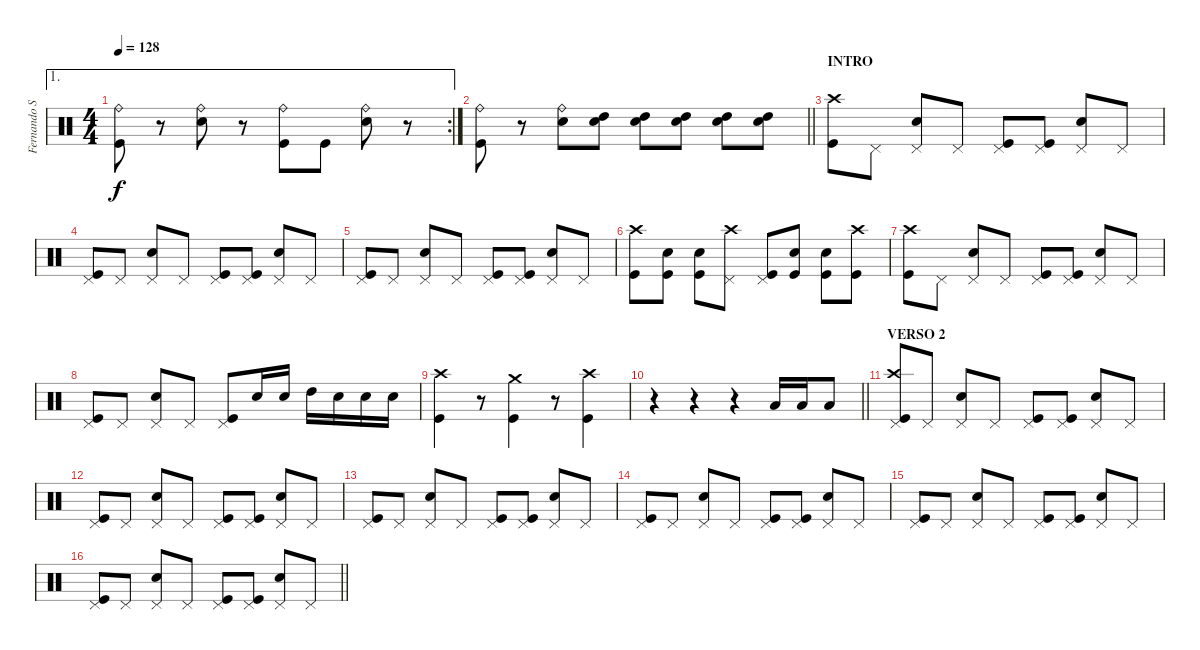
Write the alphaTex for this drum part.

\track ("Fernando Scarcella" "Fernando S") {instrument percussion}
\staff {score}
\articulation defaults
\ae 1
\rc 2
\ts (4 4)
\tempo 128
\clef neutral
\ks c
("Kick (hit)" "Ride (bell)").8{dy f} r.8 ("Snare (hit) 2" "Ride (bell)").8 r.8 ("Kick (hit)" "Ride (bell)").8 "Kick (hit)".8 ("Snare (hit) 2" "Ride (bell)").8 r.8 |
\barLineRight lightlight
("Kick (hit)" "Ride (bell)").8 r.8 ("Snare (hit) 2" "Ride (bell)").8 ("High Tom (hit)" "Snare (hit) 2").8 ("High Tom (hit)" "Snare (hit) 2").8 ("High Tom (hit)" "Snare (hit) 2").8 ("High Tom (hit)" "Snare (hit) 2").8 ("High Tom (hit)" "Snare (hit) 2").8 |
\section ("" "INTRO")
("Kick (hit)" "Crash high (hit)").8 "Pedal Hi-Hat (hit)".8 ("Snare (hit) 2" "Pedal Hi-Hat (hit)").8 "Pedal Hi-Hat (hit)".8 ("Kick (hit)" "Pedal Hi-Hat (hit)").8 ("Kick (hit)" "Pedal Hi-Hat (hit)").8 ("Snare (hit) 2" "Pedal Hi-Hat (hit)").8 "Pedal Hi-Hat (hit)".8 |
("Kick (hit)" "Pedal Hi-Hat (hit)").8 "Pedal Hi-Hat (hit)".8 ("Snare (hit) 2" "Pedal Hi-Hat (hit)").8 "Pedal Hi-Hat (hit)".8 ("Kick (hit)" "Pedal Hi-Hat (hit)").8 ("Kick (hit)" "Pedal Hi-Hat (hit)").8 ("Snare (hit) 2" "Pedal Hi-Hat (hit)").8 "Pedal Hi-Hat (hit)".8 |
("Kick (hit)" "Pedal Hi-Hat (hit)").8 "Pedal Hi-Hat (hit)".8 ("Snare (hit) 2" "Pedal Hi-Hat (hit)").8 "Pedal Hi-Hat (hit)".8 ("Kick (hit)" "Pedal Hi-Hat (hit)").8 ("Kick (hit)" "Pedal Hi-Hat (hit)").8 ("Snare (hit) 2" "Pedal Hi-Hat (hit)").8 "Pedal Hi-Hat (hit)".8 |
("Kick (hit)" "Crash high (hit)").8 ("Snare (hit) 2" "Kick (hit)").8 ("Snare (hit) 2" "Kick (hit)").8 ("Crash high (hit)" "Pedal Hi-Hat (hit)").8 ("Kick (hit)" "Pedal Hi-Hat (hit)").8 ("Kick (hit)" "Snare (hit) 2").8 ("Snare (hit) 2" "Kick (hit)").8 ("Crash high (hit)" "Kick (hit)").8 |
("Kick (hit)" "Crash high (hit)").8 "Pedal Hi-Hat (hit)".8 ("Snare (hit) 2" "Pedal Hi-Hat (hit)").8 "Pedal Hi-Hat (hit)".8 ("Kick (hit)" "Pedal Hi-Hat (hit)").8 ("Kick (hit)" "Pedal Hi-Hat (hit)").8 ("Snare (hit) 2" "Pedal Hi-Hat (hit)").8 "Pedal Hi-Hat (hit)".8 |
("Kick (hit)" "Pedal Hi-Hat (hit)").8 "Pedal Hi-Hat (hit)".8 ("Snare (hit) 2" "Pedal Hi-Hat (hit)").8 "Pedal Hi-Hat (hit)".8 ("Kick (hit)" "Pedal Hi-Hat (hit)").8 "Snare (hit) 2".16 "Snare (hit) 2".16 "High Tom (hit)".16 "Snare (hit) 2".16 "Snare (hit) 2".16 "Snare (hit) 2".16 |
("Kick (hit)" "Crash high (hit)").4 r.8 ("Kick (hit)" "Crash medium (hit)").4 r.8 ("Kick (hit)" "Crash high (hit)").4 |
\barLineRight lightlight
r.4 r.4 r.4 "Low Floor Tom (hit)".16 "Low Floor Tom (hit)".16 "Low Floor Tom (hit)".8 |
\section ("" "VERSO 2")
("Crash high (hit)" "Kick (hit)" "Pedal Hi-Hat (hit)").8 "Pedal Hi-Hat (hit)".8 ("Snare (hit) 2" "Pedal Hi-Hat (hit)").8 "Pedal Hi-Hat (hit)".8 ("Kick (hit)" "Pedal Hi-Hat (hit)").8 ("Kick (hit)" "Pedal Hi-Hat (hit)").8 ("Snare (hit) 2" "Pedal Hi-Hat (hit)").8 "Pedal Hi-Hat (hit)".8 |
("Kick (hit)" "Pedal Hi-Hat (hit)").8 "Pedal Hi-Hat (hit)".8 ("Snare (hit) 2" "Pedal Hi-Hat (hit)").8 "Pedal Hi-Hat (hit)".8 ("Kick (hit)" "Pedal Hi-Hat (hit)").8 ("Kick (hit)" "Pedal Hi-Hat (hit)").8 ("Snare (hit) 2" "Pedal Hi-Hat (hit)").8 "Pedal Hi-Hat (hit)".8 |
("Kick (hit)" "Pedal Hi-Hat (hit)").8 "Pedal Hi-Hat (hit)".8 ("Snare (hit) 2" "Pedal Hi-Hat (hit)").8 "Pedal Hi-Hat (hit)".8 ("Kick (hit)" "Pedal Hi-Hat (hit)").8 ("Kick (hit)" "Pedal Hi-Hat (hit)").8 ("Snare (hit) 2" "Pedal Hi-Hat (hit)").8 "Pedal Hi-Hat (hit)".8 |
("Kick (hit)" "Pedal Hi-Hat (hit)").8 "Pedal Hi-Hat (hit)".8 ("Snare (hit) 2" "Pedal Hi-Hat (hit)").8 "Pedal Hi-Hat (hit)".8 ("Kick (hit)" "Pedal Hi-Hat (hit)").8 ("Kick (hit)" "Pedal Hi-Hat (hit)").8 ("Snare (hit) 2" "Pedal Hi-Hat (hit)").8 "Pedal Hi-Hat (hit)".8 |
("Kick (hit)" "Pedal Hi-Hat (hit)").8 "Pedal Hi-Hat (hit)".8 ("Snare (hit) 2" "Pedal Hi-Hat (hit)").8 "Pedal Hi-Hat (hit)".8 ("Kick (hit)" "Pedal Hi-Hat (hit)").8 ("Kick (hit)" "Pedal Hi-Hat (hit)").8 ("Snare (hit) 2" "Pedal Hi-Hat (hit)").8 "Pedal Hi-Hat (hit)".8 |
\barLineRight lightlight
("Kick (hit)" "Pedal Hi-Hat (hit)").8 "Pedal Hi-Hat (hit)".8 ("Snare (hit) 2" "Pedal Hi-Hat (hit)").8 "Pedal Hi-Hat (hit)".8 ("Kick (hit)" "Pedal Hi-Hat (hit)").8 ("Kick (hit)" "Pedal Hi-Hat (hit)").8 ("Snare (hit) 2" "Pedal Hi-Hat (hit)").8 "Pedal Hi-Hat (hit)".8
